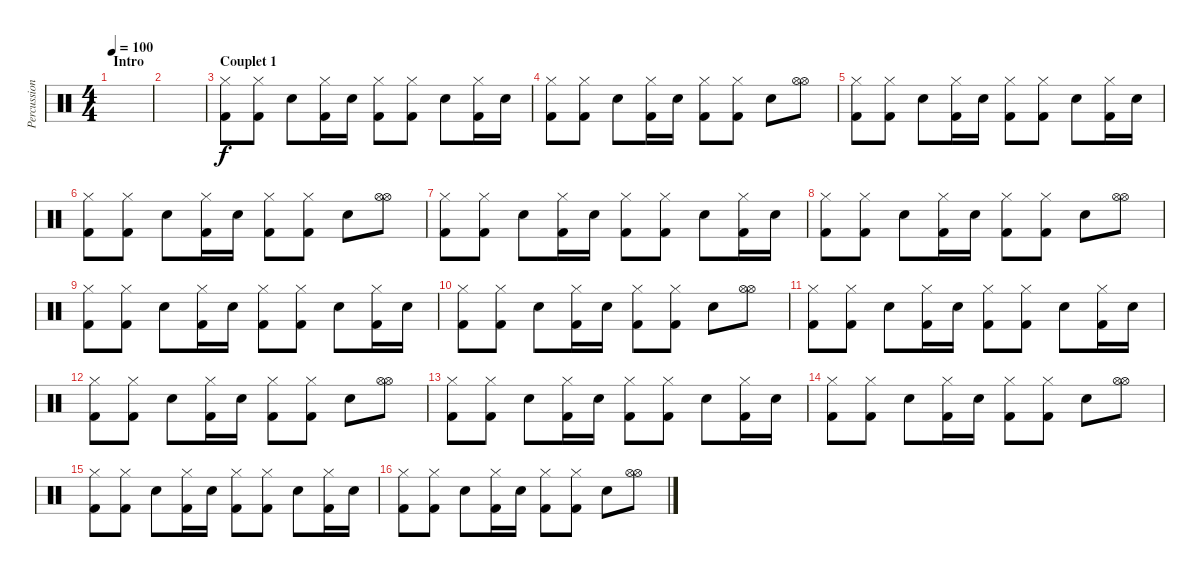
\track ("Percussions" "Percussion") {instrument percussion}
\staff {score}
\articulation defaults
\ts (4 4)
\section ("" "Intro")
\tempo 100
\clef neutral
\ks c
|
|
\section ("" "Couplet 1")
("Hi-Hat (closed)" "Kick (hit) 2").8 ("Hi-Hat (closed)" "Kick (hit) 2").8 "Snare (hit) 2".8 ("Hi-Hat (closed)" "Kick (hit) 2").16 "Snare (hit) 2".16 ("Hi-Hat (closed)" "Kick (hit) 2").8 ("Hi-Hat (closed)" "Kick (hit) 2").8 "Snare (hit) 2".8 ("Hi-Hat (closed)" "Kick (hit) 2").16 "Snare (hit) 2".16 |
("Hi-Hat (closed)" "Kick (hit) 2").8 ("Hi-Hat (closed)" "Kick (hit) 2").8 "Snare (hit) 2".8 ("Hi-Hat (closed)" "Kick (hit) 2").16 "Snare (hit) 2".16 ("Hi-Hat (closed)" "Kick (hit) 2").8 ("Hi-Hat (closed)" "Kick (hit) 2").8 "Snare (hit) 2".8 ("Hi-Hat (open)" "Hi-Hat (open)").8 |
("Hi-Hat (closed)" "Kick (hit) 2").8 ("Hi-Hat (closed)" "Kick (hit) 2").8 "Snare (hit) 2".8 ("Hi-Hat (closed)" "Kick (hit) 2").16 "Snare (hit) 2".16 ("Hi-Hat (closed)" "Kick (hit) 2").8 ("Hi-Hat (closed)" "Kick (hit) 2").8 "Snare (hit) 2".8 ("Hi-Hat (closed)" "Kick (hit) 2").16 "Snare (hit) 2".16 |
("Hi-Hat (closed)" "Kick (hit) 2").8 ("Hi-Hat (closed)" "Kick (hit) 2").8 "Snare (hit) 2".8 ("Hi-Hat (closed)" "Kick (hit) 2").16 "Snare (hit) 2".16 ("Hi-Hat (closed)" "Kick (hit) 2").8 ("Hi-Hat (closed)" "Kick (hit) 2").8 "Snare (hit) 2".8 ("Hi-Hat (open)" "Hi-Hat (open)").8 |
("Hi-Hat (closed)" "Kick (hit) 2").8 ("Hi-Hat (closed)" "Kick (hit) 2").8 "Snare (hit) 2".8 ("Hi-Hat (closed)" "Kick (hit) 2").16 "Snare (hit) 2".16 ("Hi-Hat (closed)" "Kick (hit) 2").8 ("Hi-Hat (closed)" "Kick (hit) 2").8 "Snare (hit) 2".8 ("Hi-Hat (closed)" "Kick (hit) 2").16 "Snare (hit) 2".16 |
("Hi-Hat (closed)" "Kick (hit) 2").8 ("Hi-Hat (closed)" "Kick (hit) 2").8 "Snare (hit) 2".8 ("Hi-Hat (closed)" "Kick (hit) 2").16 "Snare (hit) 2".16 ("Hi-Hat (closed)" "Kick (hit) 2").8 ("Hi-Hat (closed)" "Kick (hit) 2").8 "Snare (hit) 2".8 ("Hi-Hat (open)" "Hi-Hat (open)").8 |
("Hi-Hat (closed)" "Kick (hit) 2").8 ("Hi-Hat (closed)" "Kick (hit) 2").8 "Snare (hit) 2".8 ("Hi-Hat (closed)" "Kick (hit) 2").16 "Snare (hit) 2".16 ("Hi-Hat (closed)" "Kick (hit) 2").8 ("Hi-Hat (closed)" "Kick (hit) 2").8 "Snare (hit) 2".8 ("Hi-Hat (closed)" "Kick (hit) 2").16 "Snare (hit) 2".16 |
("Hi-Hat (closed)" "Kick (hit) 2").8 ("Hi-Hat (closed)" "Kick (hit) 2").8 "Snare (hit) 2".8 ("Hi-Hat (closed)" "Kick (hit) 2").16 "Snare (hit) 2".16 ("Hi-Hat (closed)" "Kick (hit) 2").8 ("Hi-Hat (closed)" "Kick (hit) 2").8 "Snare (hit) 2".8 ("Hi-Hat (open)" "Hi-Hat (open)").8 |
("Hi-Hat (closed)" "Kick (hit) 2").8 ("Hi-Hat (closed)" "Kick (hit) 2").8 "Snare (hit) 2".8 ("Hi-Hat (closed)" "Kick (hit) 2").16 "Snare (hit) 2".16 ("Hi-Hat (closed)" "Kick (hit) 2").8 ("Hi-Hat (closed)" "Kick (hit) 2").8 "Snare (hit) 2".8 ("Hi-Hat (closed)" "Kick (hit) 2").16 "Snare (hit) 2".16 |
("Hi-Hat (closed)" "Kick (hit) 2").8 ("Hi-Hat (closed)" "Kick (hit) 2").8 "Snare (hit) 2".8 ("Hi-Hat (closed)" "Kick (hit) 2").16 "Snare (hit) 2".16 ("Hi-Hat (closed)" "Kick (hit) 2").8 ("Hi-Hat (closed)" "Kick (hit) 2").8 "Snare (hit) 2".8 ("Hi-Hat (open)" "Hi-Hat (open)").8 |
("Hi-Hat (closed)" "Kick (hit) 2").8 ("Hi-Hat (closed)" "Kick (hit) 2").8 "Snare (hit) 2".8 ("Hi-Hat (closed)" "Kick (hit) 2").16 "Snare (hit) 2".16 ("Hi-Hat (closed)" "Kick (hit) 2").8 ("Hi-Hat (closed)" "Kick (hit) 2").8 "Snare (hit) 2".8 ("Hi-Hat (closed)" "Kick (hit) 2").16 "Snare (hit) 2".16 |
("Hi-Hat (closed)" "Kick (hit) 2").8 ("Hi-Hat (closed)" "Kick (hit) 2").8 "Snare (hit) 2".8 ("Hi-Hat (closed)" "Kick (hit) 2").16 "Snare (hit) 2".16 ("Hi-Hat (closed)" "Kick (hit) 2").8 ("Hi-Hat (closed)" "Kick (hit) 2").8 "Snare (hit) 2".8 ("Hi-Hat (open)" "Hi-Hat (open)").8 |
("Hi-Hat (closed)" "Kick (hit) 2").8 ("Hi-Hat (closed)" "Kick (hit) 2").8 "Snare (hit) 2".8 ("Hi-Hat (closed)" "Kick (hit) 2").16 "Snare (hit) 2".16 ("Hi-Hat (closed)" "Kick (hit) 2").8 ("Hi-Hat (closed)" "Kick (hit) 2").8 "Snare (hit) 2".8 ("Hi-Hat (closed)" "Kick (hit) 2").16 "Snare (hit) 2".16 |
("Hi-Hat (closed)" "Kick (hit) 2").8 ("Hi-Hat (closed)" "Kick (hit) 2").8 "Snare (hit) 2".8 ("Hi-Hat (closed)" "Kick (hit) 2").16 "Snare (hit) 2".16 ("Hi-Hat (closed)" "Kick (hit) 2").8 ("Hi-Hat (closed)" "Kick (hit) 2").8 "Snare (hit) 2".8 ("Hi-Hat (open)" "Hi-Hat (open)").8
